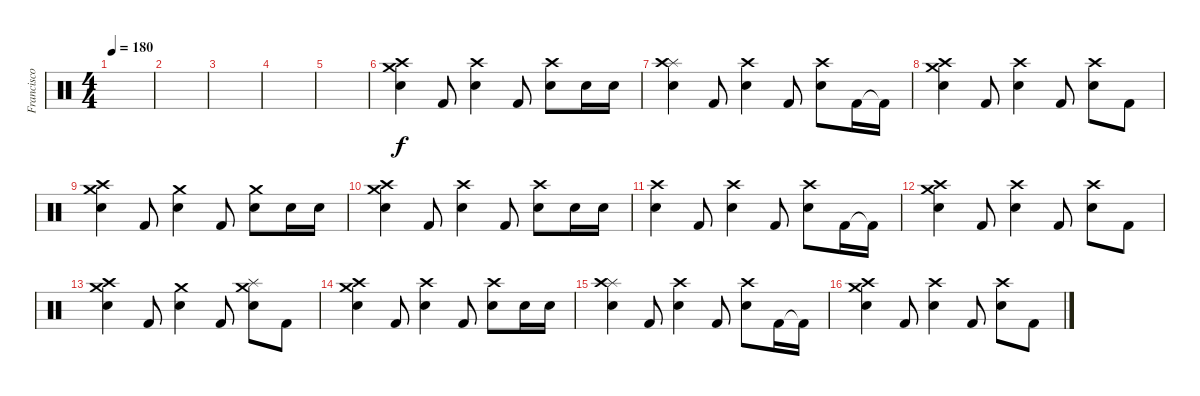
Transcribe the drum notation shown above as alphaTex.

\track ("Francisco Izquierdo (Percusión)" "Francisco ") {instrument percussion}
\staff {score}
\articulation defaults
\ts (4 4)
\tempo 180
\clef neutral
\ks c
|
|
|
|
|
("Crash high (hit)" "Crash medium (hit)" "Electric Snare (hit)").4 "Kick (hit) 2".8 ("Crash high (hit)" "Electric Snare (hit)").4 "Kick (hit) 2".8 ("Crash high (hit)" "Electric Snare (hit)").8 "Electric Snare (hit)".16 "Electric Snare (hit)".16 |
("Splash (hit)" "Crash high (hit)" "Electric Snare (hit)").4 "Kick (hit) 2".8 ("Crash high (hit)" "Electric Snare (hit)").4 "Kick (hit) 2".8 ("Crash high (hit)" "Electric Snare (hit)").8 "Kick (hit) 2".16 "Kick (hit) 2"{t}.16 |
("Crash high (hit)" "Crash medium (hit)" "Electric Snare (hit)").4 "Kick (hit) 2".8 ("Crash high (hit)" "Electric Snare (hit)").4 "Kick (hit) 2".8 ("Crash high (hit)" "Electric Snare (hit)").8 "Kick (hit) 2".8 |
("Crash high (hit)" "Crash medium (hit)" "Electric Snare (hit)").4 "Kick (hit) 2".8 ("Crash medium (hit)" "Electric Snare (hit)").4 "Kick (hit) 2".8 ("Crash medium (hit)" "Electric Snare (hit)").8 "Electric Snare (hit)".16 "Electric Snare (hit)".16 |
("Crash high (hit)" "Crash medium (hit)" "Electric Snare (hit)").4 "Kick (hit) 2".8 ("Crash high (hit)" "Electric Snare (hit)").4 "Kick (hit) 2".8 ("Crash high (hit)" "Electric Snare (hit)").8 "Electric Snare (hit)".16 "Electric Snare (hit)".16 |
("Crash high (hit)" "Electric Snare (hit)").4 "Kick (hit) 2".8 ("Crash high (hit)" "Electric Snare (hit)").4 "Kick (hit) 2".8 ("Crash high (hit)" "Electric Snare (hit)").8 "Kick (hit) 2".16 "Kick (hit) 2"{t}.16 |
("Crash medium (hit)" "Crash high (hit)" "Electric Snare (hit)").4 "Kick (hit) 2".8 ("Crash high (hit)" "Electric Snare (hit)").4 "Kick (hit) 2".8 ("Crash high (hit)" "Electric Snare (hit)").8 "Kick (hit) 2".8 |
("Crash medium (hit)" "Crash high (hit)" "Electric Snare (hit)").4 "Kick (hit) 2".8 ("Crash medium (hit)" "Electric Snare (hit)").4 "Kick (hit) 2".8 ("Splash (hit)" "Crash medium (hit)" "Electric Snare (hit)").8 "Kick (hit) 2".8 |
("Crash high (hit)" "Crash medium (hit)" "Electric Snare (hit)").4 "Kick (hit) 2".8 ("Crash high (hit)" "Electric Snare (hit)").4 "Kick (hit) 2".8 ("Crash high (hit)" "Electric Snare (hit)").8 "Electric Snare (hit)".16 "Electric Snare (hit)".16 |
("Splash (hit)" "Crash high (hit)" "Electric Snare (hit)").4 "Kick (hit) 2".8 ("Crash high (hit)" "Electric Snare (hit)").4 "Kick (hit) 2".8 ("Crash high (hit)" "Electric Snare (hit)").8 "Kick (hit) 2".16 "Kick (hit) 2"{t}.16 |
("Crash high (hit)" "Crash medium (hit)" "Electric Snare (hit)").4 "Kick (hit) 2".8 ("Crash high (hit)" "Electric Snare (hit)").4 "Kick (hit) 2".8 ("Crash high (hit)" "Electric Snare (hit)").8 "Kick (hit) 2".8
